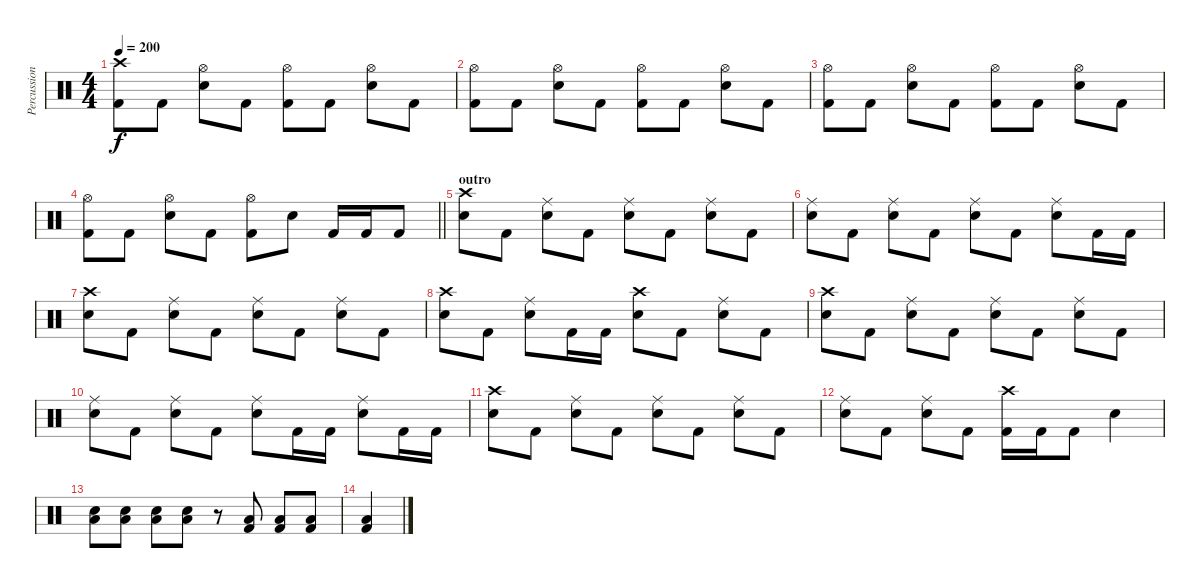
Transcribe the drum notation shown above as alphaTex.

\track ("Percussion" "Percussion") {instrument percussion}
\staff {score}
\articulation defaults
\ts (4 4)
\tempo 200
\clef neutral
\ks c
("Crash high (hit)" "Kick (hit) 2").8{dy f} "Kick (hit) 2".8 ("Hi-Hat (open)" "Snare (hit) 2").8 "Kick (hit) 2".8 ("Hi-Hat (open)" "Kick (hit) 2").8 "Kick (hit) 2".8 ("Hi-Hat (open)" "Snare (hit) 2").8 "Kick (hit) 2".8 |
("Hi-Hat (open)" "Kick (hit) 2").8 "Kick (hit) 2".8 ("Hi-Hat (open)" "Snare (hit) 2").8 "Kick (hit) 2".8 ("Hi-Hat (open)" "Kick (hit) 2").8 "Kick (hit) 2".8 ("Hi-Hat (open)" "Snare (hit) 2").8 "Kick (hit) 2".8 |
("Hi-Hat (open)" "Kick (hit) 2").8 "Kick (hit) 2".8 ("Hi-Hat (open)" "Snare (hit) 2").8 "Kick (hit) 2".8 ("Hi-Hat (open)" "Kick (hit) 2").8 "Kick (hit) 2".8 ("Hi-Hat (open)" "Snare (hit) 2").8 "Kick (hit) 2".8 |
\barLineRight lightlight
("Hi-Hat (open)" "Kick (hit) 2").8 "Kick (hit) 2".8 ("Hi-Hat (open)" "Snare (hit) 2").8 "Kick (hit) 2".8 ("Hi-Hat (open)" "Kick (hit) 2").8 "Snare (hit) 2".8 "Kick (hit) 2".16 "Kick (hit) 2".16 "Kick (hit) 2".8 |
\section ("" "outro")
("Crash high (hit)" "Snare (hit) 2").8 "Kick (hit) 2".8 ("Ride (middle)" "Snare (hit) 2").8 "Kick (hit) 2".8 ("Ride (middle)" "Snare (hit) 2").8 "Kick (hit) 2".8 ("Ride (middle)" "Snare (hit) 2").8 "Kick (hit) 2".8 |
("Ride (middle)" "Snare (hit) 2").8 "Kick (hit) 2".8 ("Ride (middle)" "Snare (hit) 2").8 "Kick (hit) 2".8 ("Ride (middle)" "Snare (hit) 2").8 "Kick (hit) 2".8 ("Ride (middle)" "Snare (hit) 2").8 "Kick (hit) 2".16 "Kick (hit) 2".16 |
("Crash high (hit)" "Snare (hit) 2").8 "Kick (hit) 2".8 ("Ride (middle)" "Snare (hit) 2").8 "Kick (hit) 2".8 ("Ride (middle)" "Snare (hit) 2").8 "Kick (hit) 2".8 ("Ride (middle)" "Snare (hit) 2").8 "Kick (hit) 2".8 |
("Crash high (hit)" "Snare (hit) 2").8 "Kick (hit) 2".8 ("Ride (middle)" "Snare (hit) 2").8 "Kick (hit) 2".16 "Kick (hit) 2".16 ("Crash high (hit)" "Snare (hit) 2").8 "Kick (hit) 2".8 ("Ride (middle)" "Snare (hit) 2").8 "Kick (hit) 2".8 |
("Crash high (hit)" "Snare (hit) 2").8 "Kick (hit) 2".8 ("Ride (middle)" "Snare (hit) 2").8 "Kick (hit) 2".8 ("Ride (middle)" "Snare (hit) 2").8 "Kick (hit) 2".8 ("Ride (middle)" "Snare (hit) 2").8 "Kick (hit) 2".8 |
("Ride (middle)" "Snare (hit) 2").8 "Kick (hit) 2".8 ("Ride (middle)" "Snare (hit) 2").8 "Kick (hit) 2".8 ("Ride (middle)" "Snare (hit) 2").8 "Kick (hit) 2".16 "Kick (hit) 2".16 ("Ride (middle)" "Snare (hit) 2").8 "Kick (hit) 2".16 "Kick (hit) 2".16 |
("Crash high (hit)" "Snare (hit) 2").8 "Kick (hit) 2".8 ("Ride (middle)" "Snare (hit) 2").8 "Kick (hit) 2".8 ("Ride (middle)" "Snare (hit) 2").8 "Kick (hit) 2".8 ("Ride (middle)" "Snare (hit) 2").8 "Kick (hit) 2".8 |
("Ride (middle)" "Snare (hit) 2").8 "Kick (hit) 2".8 ("Ride (middle)" "Snare (hit) 2").8 "Kick (hit) 2".8 ("Crash high (hit)" "Kick (hit) 2").16 "Kick (hit) 2".16 "Kick (hit) 2".8 "Snare (hit) 2".4 |
("Snare (hit) 2" "Low Floor Tom (hit)").8 ("Snare (hit) 2" "Low Floor Tom (hit)").8 ("Snare (hit) 2" "Low Floor Tom (hit)").8 ("Snare (hit) 2" "Low Floor Tom (hit)").8 r.8 ("Kick (hit) 2" "Low Floor Tom (hit)").8 ("Kick (hit) 2" "Low Floor Tom (hit)").8 ("Kick (hit) 2" "Low Floor Tom (hit)").8 |
("Kick (hit) 2" "Low Floor Tom (hit)").4
